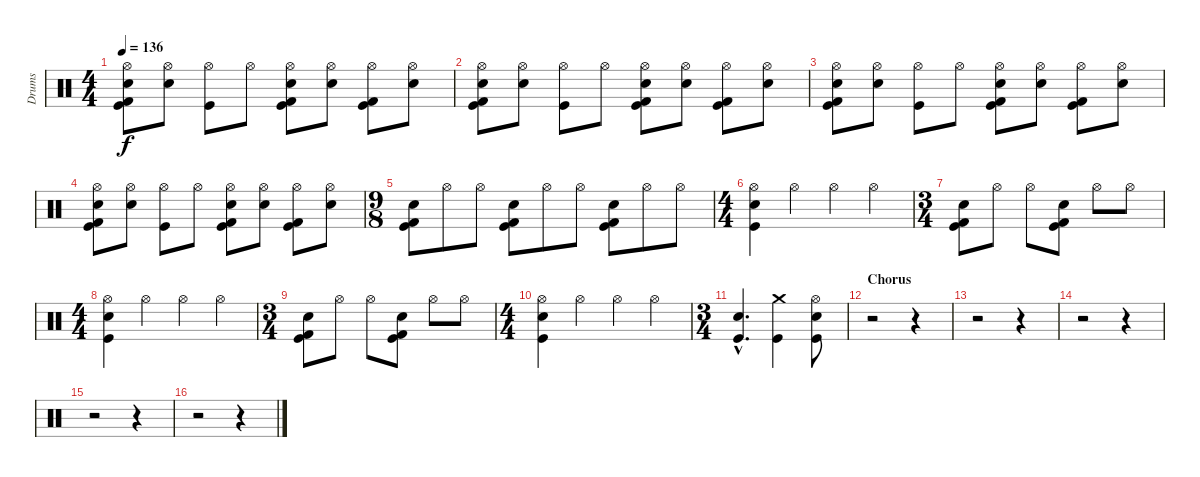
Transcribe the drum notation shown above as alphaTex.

\track ("Drums" "Drums") {instrument percussion}
\staff {score}
\articulation defaults
\ts (4 4)
\tempo 136
\clef neutral
\ks c
("Hi-Hat (open)" "Electric Snare (hit)" "Kick (hit) 2" "Kick (hit)").8{dy f} ("Hi-Hat (open)" "Electric Snare (hit)").8 ("Hi-Hat (open)" "Kick (hit)").8 "Hi-Hat (open)".8 ("Hi-Hat (open)" "Electric Snare (hit)" "Kick (hit) 2" "Kick (hit)").8 ("Hi-Hat (open)" "Electric Snare (hit)").8 ("Hi-Hat (open)" "Kick (hit) 2" "Kick (hit)").8 ("Hi-Hat (open)" "Electric Snare (hit)").8 |
("Hi-Hat (open)" "Electric Snare (hit)" "Kick (hit) 2" "Kick (hit)").8 ("Hi-Hat (open)" "Electric Snare (hit)").8 ("Hi-Hat (open)" "Kick (hit)").8 "Hi-Hat (open)".8 ("Hi-Hat (open)" "Electric Snare (hit)" "Kick (hit) 2" "Kick (hit)").8 ("Hi-Hat (open)" "Electric Snare (hit)").8 ("Hi-Hat (open)" "Kick (hit) 2" "Kick (hit)").8 ("Hi-Hat (open)" "Electric Snare (hit)").8 |
("Hi-Hat (open)" "Electric Snare (hit)" "Kick (hit) 2" "Kick (hit)").8 ("Hi-Hat (open)" "Electric Snare (hit)").8 ("Hi-Hat (open)" "Kick (hit)").8 "Hi-Hat (open)".8 ("Hi-Hat (open)" "Electric Snare (hit)" "Kick (hit) 2" "Kick (hit)").8 ("Hi-Hat (open)" "Electric Snare (hit)").8 ("Hi-Hat (open)" "Kick (hit) 2" "Kick (hit)").8 ("Hi-Hat (open)" "Electric Snare (hit)").8 |
("Hi-Hat (open)" "Electric Snare (hit)" "Kick (hit) 2" "Kick (hit)").8 ("Hi-Hat (open)" "Electric Snare (hit)").8 ("Hi-Hat (open)" "Kick (hit)").8 "Hi-Hat (open)".8 ("Hi-Hat (open)" "Electric Snare (hit)" "Kick (hit) 2" "Kick (hit)").8 ("Hi-Hat (open)" "Electric Snare (hit)").8 ("Hi-Hat (open)" "Kick (hit) 2" "Kick (hit)").8 ("Hi-Hat (open)" "Electric Snare (hit)").8 |
\ts (9 8)
("Electric Snare (hit)" "Kick (hit) 2" "Kick (hit)").8 "Hi-Hat (open)".8 "Hi-Hat (open)".8 ("Electric Snare (hit)" "Kick (hit) 2" "Kick (hit)").8 "Hi-Hat (open)".8 "Hi-Hat (open)".8 ("Electric Snare (hit)" "Kick (hit) 2" "Kick (hit)").8 "Hi-Hat (open)".8 "Hi-Hat (open)".8 |
\ts (4 4)
("Hi-Hat (open)" "Electric Snare (hit)" "Kick (hit)").4 "Hi-Hat (open)".4 "Hi-Hat (open)".4 "Hi-Hat (open)".4 |
\ts (3 4)
("Electric Snare (hit)" "Kick (hit) 2" "Kick (hit)").8 "Hi-Hat (open)".8 "Hi-Hat (open)".8 ("Electric Snare (hit)" "Kick (hit) 2" "Kick (hit)").8 "Hi-Hat (open)".8 "Hi-Hat (open)".8 |
\ts (4 4)
("Hi-Hat (open)" "Electric Snare (hit)" "Kick (hit)").4 "Hi-Hat (open)".4 "Hi-Hat (open)".4 "Hi-Hat (open)".4 |
\ts (3 4)
("Electric Snare (hit)" "Kick (hit) 2" "Kick (hit)").8 "Hi-Hat (open)".8 "Hi-Hat (open)".8 ("Electric Snare (hit)" "Kick (hit) 2" "Kick (hit)").8 "Hi-Hat (open)".8 "Hi-Hat (open)".8 |
\ts (4 4)
("Hi-Hat (open)" "Electric Snare (hit)" "Kick (hit)").4 "Hi-Hat (open)".4 "Hi-Hat (open)".4 "Hi-Hat (open)".4 |
\ts (3 4)
("Electric Snare (hit)"{hac} "Kick (hit)"{hac}).4{d} ("Crash medium (hit)" "Kick (hit)").4 ("Hi-Hat (open)" "Electric Snare (hit)" "Kick (hit)").8 |
\section ("" "Chorus")
r.2 r.4 |
r.2 r.4 |
r.2 r.4 |
r.2 r.4 |
r.2 r.4
